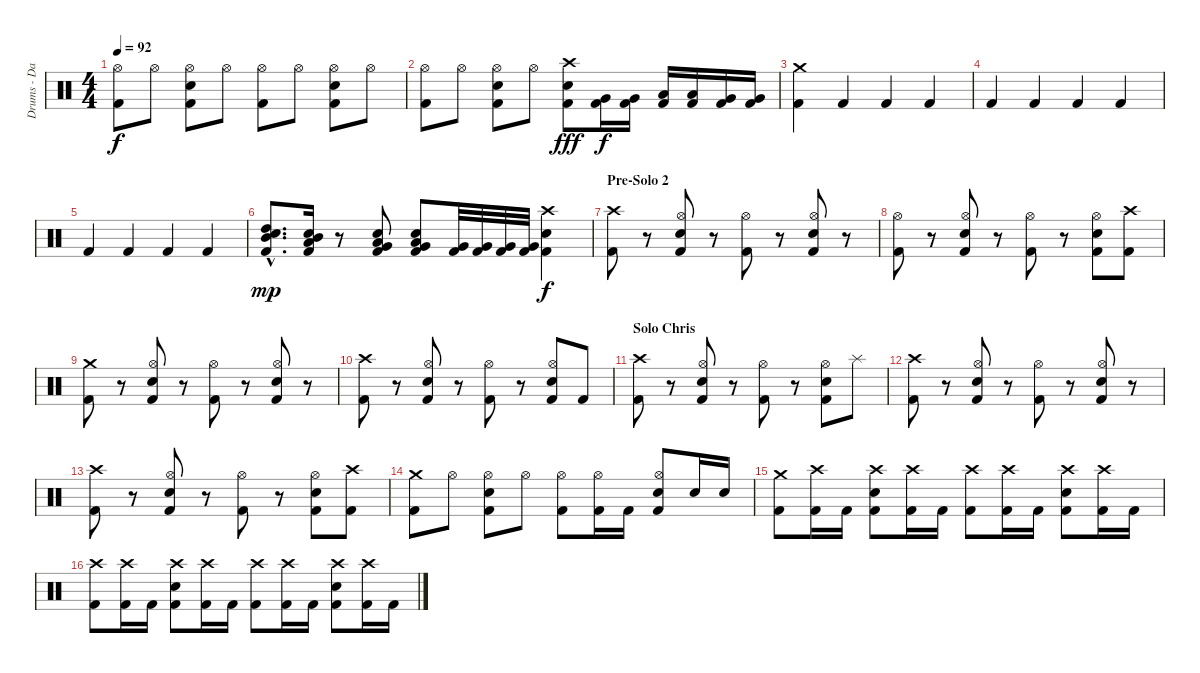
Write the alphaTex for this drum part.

\track ("Drums - Daniel Zimmermann" "Drums - Da") {instrument percussion}
\staff {score}
\articulation defaults
\ts (4 4)
\tempo 92
\clef neutral
\ks c
("Kick (hit) 2" "Hi-Hat (open)").8{dy f} "Hi-Hat (open)".8 ("Kick (hit) 2" "Electric Snare (hit)" "Hi-Hat (open)").8 "Hi-Hat (open)".8 ("Kick (hit) 2" "Hi-Hat (open)").8 "Hi-Hat (open)".8 ("Kick (hit) 2" "Electric Snare (hit)" "Hi-Hat (open)").8 "Hi-Hat (open)".8 |
("Kick (hit) 2" "Hi-Hat (open)").8 "Hi-Hat (open)".8 ("Kick (hit) 2" "Electric Snare (hit)" "Hi-Hat (open)").8 "Hi-Hat (open)".8 ("Kick (hit) 2" "Electric Snare (hit)" "Crash high (hit)").8{dy fff} ("Kick (hit) 2" "Very Low Tom (hit)").16{dy f} ("Kick (hit) 2" "Very Low Tom (hit)").16 ("Kick (hit) 2" "Low Tom (hit)").16 ("Kick (hit) 2" "Low Tom (hit)").16 ("Kick (hit) 2" "Very Low Tom (hit)").16 ("Kick (hit) 2" "Very Low Tom (hit)").16 |
("Kick (hit) 2" "Crash medium (hit)").4 "Kick (hit) 2".4 "Kick (hit) 2".4 "Kick (hit) 2".4 |
"Kick (hit) 2".4 "Kick (hit) 2".4 "Kick (hit) 2".4 "Kick (hit) 2".4 |
"Kick (hit) 2".4 "Kick (hit) 2".4 "Kick (hit) 2".4 "Kick (hit) 2".4 |
("Kick (hit) 2"{hac} "Electric Snare (hit)"{hac} "Mid Tom (hit)"{hac} "High Tom (hit)"{hac}).8{d dy mp} ("Kick (hit) 2" "Electric Snare (hit)" "Low Tom (hit)" "Mid Tom (hit)").16 r.8 ("Kick (hit) 2" "Electric Snare (hit)" "Very Low Tom (hit)" "Low Tom (hit)").8 ("Kick (hit) 2" "Electric Snare (hit)" "Low Floor Tom (hit)" "Very Low Tom (hit)").8 ("Kick (hit) 2" "Very Low Tom (hit)").32 ("Kick (hit) 2" "Very Low Tom (hit)").32 ("Kick (hit) 2" "Very Low Tom (hit)").32 ("Kick (hit) 2" "Very Low Tom (hit)").32 ("Kick (hit) 2" "Electric Snare (hit)" "Crash high (hit)").4{dy f} |
\section ("" "Pre-Solo 2")
("Kick (hit) 2" "Crash high (hit)").8 r.8 ("Kick (hit) 2" "Electric Snare (hit)" "Hi-Hat (open)").8 r.8 ("Kick (hit) 2" "Hi-Hat (open)").8 r.8 ("Kick (hit) 2" "Electric Snare (hit)" "Hi-Hat (open)").8 r.8 |
("Kick (hit) 2" "Hi-Hat (open)").8 r.8 ("Kick (hit) 2" "Electric Snare (hit)" "Hi-Hat (open)").8 r.8 ("Kick (hit) 2" "Hi-Hat (open)").8 r.8 ("Kick (hit) 2" "Electric Snare (hit)" "Hi-Hat (open)").8 ("Kick (hit) 2" "Crash high (hit)").8 |
("Kick (hit) 2" "Crash medium (hit)").8 r.8 ("Kick (hit) 2" "Electric Snare (hit)" "Hi-Hat (open)").8 r.8 ("Kick (hit) 2" "Hi-Hat (open)").8 r.8 ("Kick (hit) 2" "Electric Snare (hit)" "Hi-Hat (open)").8 r.8 |
("Kick (hit) 2" "Crash high (hit)").8 r.8 ("Kick (hit) 2" "Electric Snare (hit)" "Hi-Hat (open)").8 r.8 ("Kick (hit) 2" "Hi-Hat (open)").8 r.8 ("Kick (hit) 2" "Electric Snare (hit)" "Hi-Hat (open)").8 "Kick (hit) 2".8 |
\section ("" "Solo Chris")
("Kick (hit) 2" "Crash high (hit)").8 r.8 ("Kick (hit) 2" "Electric Snare (hit)" "Hi-Hat (open)").8 r.8 ("Kick (hit) 2" "Hi-Hat (open)").8 r.8 ("Kick (hit) 2" "Electric Snare (hit)" "Hi-Hat (open)").8 "Splash (hit)".8 |
("Kick (hit) 2" "Crash high (hit)").8 r.8 ("Kick (hit) 2" "Electric Snare (hit)" "Hi-Hat (open)").8 r.8 ("Kick (hit) 2" "Hi-Hat (open)").8 r.8 ("Kick (hit) 2" "Electric Snare (hit)" "Hi-Hat (open)").8 r.8 |
("Kick (hit) 2" "Crash high (hit)").8 r.8 ("Kick (hit) 2" "Electric Snare (hit)" "Hi-Hat (open)").8 r.8 ("Kick (hit) 2" "Hi-Hat (open)").8 r.8 ("Kick (hit) 2" "Electric Snare (hit)" "Hi-Hat (open)").8 ("Kick (hit) 2" "Crash high (hit)").8 |
("Kick (hit) 2" "Crash medium (hit)").8 "Hi-Hat (open)".8 ("Kick (hit) 2" "Electric Snare (hit)" "Hi-Hat (open)").8 "Hi-Hat (open)".8 ("Kick (hit) 2" "Hi-Hat (open)").8 ("Kick (hit) 2" "Hi-Hat (open)").16 "Kick (hit) 2".16 ("Kick (hit) 2" "Electric Snare (hit)" "Hi-Hat (open)").8 "Electric Snare (hit)".16 "Electric Snare (hit)".16 |
("Kick (hit) 2" "Crash medium (hit)").8 ("Kick (hit) 2" "Crash high (hit)").16 "Kick (hit) 2".16 ("Kick (hit) 2" "Electric Snare (hit)" "Crash high (hit)").8 ("Kick (hit) 2" "Crash high (hit)").16 "Kick (hit) 2".16 ("Kick (hit) 2" "Crash high (hit)").8 ("Kick (hit) 2" "Crash high (hit)").16 "Kick (hit) 2".16 ("Kick (hit) 2" "Electric Snare (hit)" "Crash high (hit)").8 ("Kick (hit) 2" "Crash high (hit)").16 "Kick (hit) 2".16 |
("Kick (hit) 2" "Crash high (hit)").8 ("Kick (hit) 2" "Crash high (hit)").16 "Kick (hit) 2".16 ("Kick (hit) 2" "Electric Snare (hit)" "Crash high (hit)").8 ("Kick (hit) 2" "Crash high (hit)").16 "Kick (hit) 2".16 ("Kick (hit) 2" "Crash high (hit)").8 ("Kick (hit) 2" "Crash high (hit)").16 "Kick (hit) 2".16 ("Kick (hit) 2" "Electric Snare (hit)" "Crash high (hit)").8 ("Kick (hit) 2" "Crash high (hit)").16 "Kick (hit) 2".16
